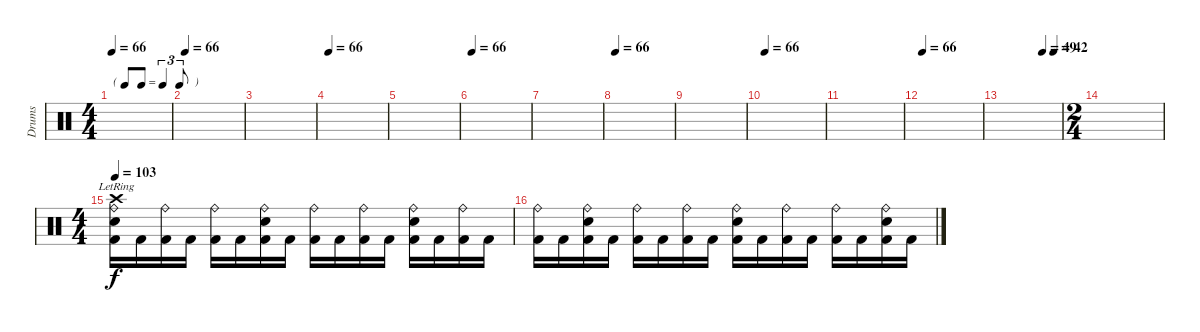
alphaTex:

\track ("Drums" "Drums") {instrument percussion}
\staff {score}
\articulation defaults
\ts (4 4)
\tf triplet8th
\tempo 66
\clef neutral
\ks c
|
\tempo 66
|
|
\tempo 66
|
|
\tempo 66
|
|
\tempo 66
|
|
\tempo 66
|
|
\tempo 66
|
\tempo (49 0.6875)
\tempo (42 0.875)
|
\ts (2 4)
|
\ts (4 4)
\tempo 103
("Ride (bell)"{lr} "Crash high (hit)"{lr} "Electric Snare (hit)" "Kick (hit) 2").16 "Kick (hit) 2".16 ("Ride (bell)" "Kick (hit) 2").16 "Kick (hit) 2".16 ("Ride (bell)" "Kick (hit) 2").16 "Kick (hit) 2".16 ("Ride (bell)" "Electric Snare (hit)" "Kick (hit) 2").16 "Kick (hit) 2".16 ("Ride (bell)" "Kick (hit) 2").16 "Kick (hit) 2".16 ("Ride (bell)" "Kick (hit) 2").16 "Kick (hit) 2".16 ("Ride (bell)" "Electric Snare (hit)" "Kick (hit) 2").16 "Kick (hit) 2".16 ("Ride (bell)" "Kick (hit) 2").16 "Kick (hit) 2".16 |
("Ride (bell)" "Kick (hit) 2").16 "Kick (hit) 2".16 ("Ride (bell)" "Electric Snare (hit)" "Kick (hit) 2").16 "Kick (hit) 2".16 ("Ride (bell)" "Kick (hit) 2").16 "Kick (hit) 2".16 ("Ride (bell)" "Kick (hit) 2").16 "Kick (hit) 2".16 ("Ride (bell)" "Electric Snare (hit)" "Kick (hit) 2").16 "Kick (hit) 2".16 ("Ride (bell)" "Kick (hit) 2").16 "Kick (hit) 2".16 ("Ride (bell)" "Kick (hit) 2").16 "Kick (hit) 2".16 ("Ride (bell)" "Electric Snare (hit)" "Kick (hit) 2").16 "Kick (hit) 2".16
